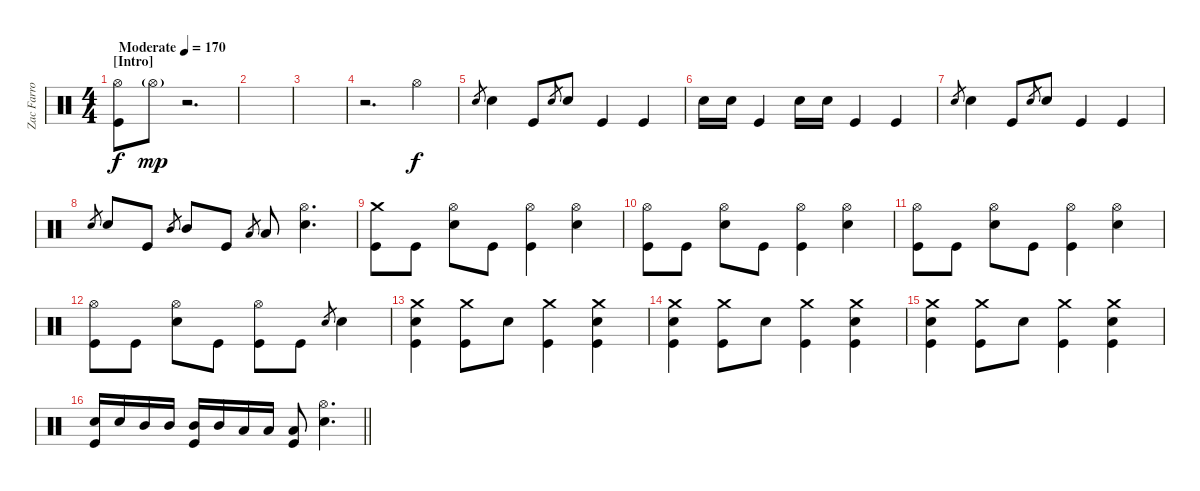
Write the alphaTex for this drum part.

\track ("Zac Farro" "Zac Farro") {instrument percussion}
\staff {score}
\articulation defaults
\ts (4 4)
\section ("" "[Intro]")
\tempo (170 "Moderate")
\clef neutral
\ks c
("Hi-Hat (open)" "Kick (hit)").8{dy f} "Hi-Hat (open)"{g}.8{dy mp} r.2{d} |
|
|
r.2{d} "Hi-Hat (open)".4{dy f} |
"Electric Snare (hit)".8{gr} "Electric Snare (hit)".4 "Kick (hit)".8 "Electric Snare (hit)".8{gr} "Electric Snare (hit)".8 "Kick (hit)".4 "Kick (hit)".4 |
"Electric Snare (hit)".16 "Electric Snare (hit)".16 "Kick (hit)".4 "Electric Snare (hit)".16 "Electric Snare (hit)".16 "Kick (hit)".4 "Kick (hit)".4 |
"Electric Snare (hit)".8{gr} "Electric Snare (hit)".4 "Kick (hit)".8 "Electric Snare (hit)".8{gr} "Electric Snare (hit)".8 "Kick (hit)".4 "Kick (hit)".4 |
"Electric Snare (hit)".8{gr} "Electric Snare (hit)".8 "Kick (hit)".8 "Mid Tom (hit)".8{gr} "Mid Tom (hit)".8 "Kick (hit)".8 "Low Tom (hit)".8{gr} "Low Tom (hit)".8 ("Hi-Hat (open)" "Electric Snare (hit)").4{d} |
("Crash medium (hit)" "Kick (hit)").8 "Kick (hit)".8 ("Hi-Hat (open)" "Electric Snare (hit)").8 "Kick (hit)".8 ("Hi-Hat (open)" "Kick (hit)").4 ("Hi-Hat (open)" "Electric Snare (hit)").4 |
("Hi-Hat (open)" "Kick (hit)").8 "Kick (hit)".8 ("Hi-Hat (open)" "Electric Snare (hit)").8 "Kick (hit)".8 ("Hi-Hat (open)" "Kick (hit)").4 ("Hi-Hat (open)" "Electric Snare (hit)").4 |
("Hi-Hat (open)" "Kick (hit)").8 "Kick (hit)".8 ("Hi-Hat (open)" "Electric Snare (hit)").8 "Kick (hit)".8 ("Hi-Hat (open)" "Kick (hit)").4 ("Hi-Hat (open)" "Electric Snare (hit)").4 |
("Hi-Hat (open)" "Kick (hit)").8 "Kick (hit)".8 ("Hi-Hat (open)" "Electric Snare (hit)").8 "Kick (hit)".8 ("Hi-Hat (open)" "Kick (hit)").8 "Kick (hit)".8 "Electric Snare (hit)".8{gr} "Electric Snare (hit)".4 |
("Crash medium (hit)" "Electric Snare (hit)" "Kick (hit)").4 ("Crash medium (hit)" "Kick (hit)").8 "Electric Snare (hit)".8 ("Crash medium (hit)" "Kick (hit)").4 ("Crash medium (hit)" "Electric Snare (hit)" "Kick (hit)").4 |
("Crash medium (hit)" "Electric Snare (hit)" "Kick (hit)").4 ("Crash medium (hit)" "Kick (hit)").8 "Electric Snare (hit)".8 ("Crash medium (hit)" "Kick (hit)").4 ("Crash medium (hit)" "Electric Snare (hit)" "Kick (hit)").4 |
("Crash medium (hit)" "Electric Snare (hit)" "Kick (hit)").4 ("Crash medium (hit)" "Kick (hit)").8 "Electric Snare (hit)".8 ("Crash medium (hit)" "Kick (hit)").4 ("Crash medium (hit)" "Electric Snare (hit)" "Kick (hit)").4 |
\barLineRight lightlight
("Electric Snare (hit)" "Kick (hit)").16 "Electric Snare (hit)".16 "Mid Tom (hit)".16 "Mid Tom (hit)".16 ("Mid Tom (hit)" "Kick (hit)").16 "Mid Tom (hit)".16 "Low Tom (hit)".16 "Low Tom (hit)".16 ("Low Tom (hit)" "Kick (hit)").8 ("Hi-Hat (open)" "Electric Snare (hit)").4{d}
